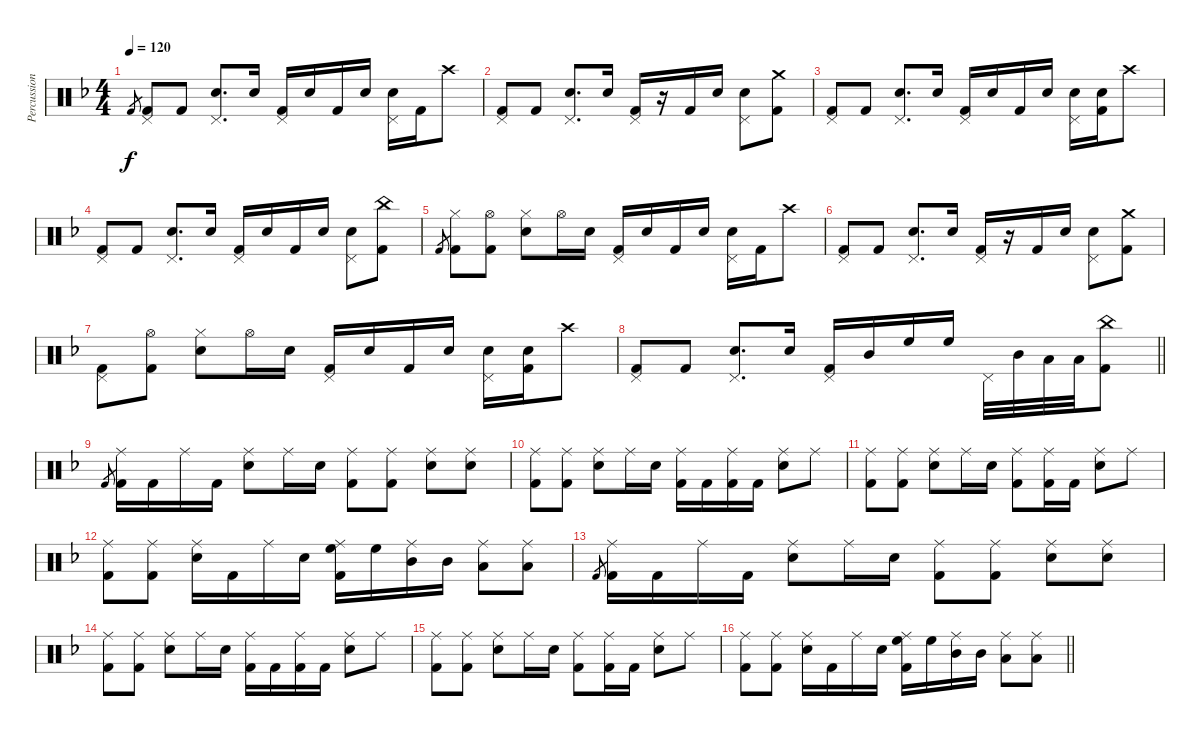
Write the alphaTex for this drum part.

\track ("Percussion" "Percussion") {instrument percussion}
\staff {score}
\articulation defaults
\ts (4 4)
\tempo 120
\clef neutral
\ks dminor "Kick (hit) 2".8{gr dy f}
("Pedal Hi-Hat (hit)" "Kick (hit) 2").8{volume 14} "Kick (hit) 2".8 ("Pedal Hi-Hat (hit)" "Snare (hit) 2").8{d} "Snare (hit) 2".16 ("Pedal Hi-Hat (hit)" "Kick (hit) 2").16 "Snare (hit) 2".16 "Kick (hit) 2".16 "Snare (hit) 2".16 ("Pedal Hi-Hat (hit)" "Snare (hit) 2").16 "Kick (hit) 2".16 "Crash high (hit)".8 |
("Pedal Hi-Hat (hit)" "Kick (hit) 2").8 "Kick (hit) 2".8 ("Pedal Hi-Hat (hit)" "Snare (hit) 2").8{d} "Snare (hit) 2".16 ("Pedal Hi-Hat (hit)" "Kick (hit) 2").16 r.16 "Kick (hit) 2".16 "Snare (hit) 2".16 ("Pedal Hi-Hat (hit)" "Snare (hit) 2").8 ("Crash medium (hit)" "Kick (hit) 2").8 |
("Pedal Hi-Hat (hit)" "Kick (hit) 2").8 "Kick (hit) 2".8 ("Pedal Hi-Hat (hit)" "Snare (hit) 2").8{d} "Snare (hit) 2".16 ("Pedal Hi-Hat (hit)" "Kick (hit) 2").16 "Snare (hit) 2".16 "Kick (hit) 2".16 "Snare (hit) 2".16 ("Pedal Hi-Hat (hit)" "Snare (hit) 2").16 ("Snare (hit) 2" "Kick (hit) 2").16 "Crash high (hit)".8 |
("Pedal Hi-Hat (hit)" "Kick (hit) 2").8 "Kick (hit) 2".8 ("Pedal Hi-Hat (hit)" "Snare (hit) 2").8{d} "Snare (hit) 2".16 ("Pedal Hi-Hat (hit)" "Kick (hit) 2").16 "Snare (hit) 2".16 "Kick (hit) 2".16 "Snare (hit) 2".16 ("Pedal Hi-Hat (hit)" "Snare (hit) 2").8 ("China (hit)" "Kick (hit) 2").8 |
"Kick (hit) 2".8{gr} ("Hi-Hat (closed)" "Kick (hit) 2").8 ("Hi-Hat (open)" "Kick (hit) 2").8 ("Hi-Hat (closed)" "Snare (hit) 2").8 "Hi-Hat (open)".16 "Snare (hit) 2".16 ("Pedal Hi-Hat (hit)" "Kick (hit) 2").16 "Snare (hit) 2".16 "Kick (hit) 2".16 "Snare (hit) 2".16 ("Pedal Hi-Hat (hit)" "Snare (hit) 2").16 "Kick (hit) 2".16 "Crash high (hit)".8 |
("Pedal Hi-Hat (hit)" "Kick (hit) 2").8 "Kick (hit) 2".8 ("Pedal Hi-Hat (hit)" "Snare (hit) 2").8{d} "Snare (hit) 2".16 ("Pedal Hi-Hat (hit)" "Kick (hit) 2").16 r.16 "Kick (hit) 2".16 "Snare (hit) 2".16 ("Pedal Hi-Hat (hit)" "Snare (hit) 2").8 ("Crash medium (hit)" "Kick (hit) 2").8 |
("Pedal Hi-Hat (hit)" "Kick (hit) 2").8 ("Hi-Hat (open)" "Kick (hit) 2").8 ("Hi-Hat (closed)" "Snare (hit) 2").8 "Hi-Hat (open)".16 "Snare (hit) 2".16 ("Pedal Hi-Hat (hit)" "Kick (hit) 2").16 "Snare (hit) 2".16 "Kick (hit) 2".16 "Snare (hit) 2".16 ("Pedal Hi-Hat (hit)" "Snare (hit) 2").16 ("Snare (hit) 2" "Kick (hit) 2").16 "Crash high (hit)".8 |
\barLineRight lightlight
("Pedal Hi-Hat (hit)" "Kick (hit) 2").8 "Kick (hit) 2".8 ("Pedal Hi-Hat (hit)" "Snare (hit) 2").8{d} "Snare (hit) 2".16 ("Pedal Hi-Hat (hit)" "Kick (hit) 2").16 "Mid Tom (hit)".16 "High Floor Tom (hit)".16 "High Floor Tom (hit)".16 "Pedal Hi-Hat (hit)".32 "Mid Tom (hit)".32 "Low Tom (hit)".32 "Low Tom (hit)".32 ("China (hit)" "Kick (hit) 2").8 |
"Kick (hit) 2".8{gr} ("Ride (middle)" "Kick (hit) 2").16 "Kick (hit) 2".16 "Ride (middle)".16 "Kick (hit) 2".16 ("Ride (middle)" "Snare (hit) 2").8 "Ride (middle)".16 "Snare (hit) 2".16 ("Ride (middle)" "Kick (hit) 2").8 ("Ride (middle)" "Kick (hit) 2").8 ("Ride (middle)" "Snare (hit) 2").8 ("Ride (middle)" "Snare (hit) 2").8 |
("Ride (middle)" "Kick (hit) 2").8 ("Ride (middle)" "Kick (hit) 2").8 ("Ride (middle)" "Snare (hit) 2").8 "Ride (middle)".16 "Snare (hit) 2".16 ("Ride (middle)" "Kick (hit) 2").16 "Kick (hit) 2".16 ("Ride (middle)" "Kick (hit) 2").16 "Kick (hit) 2".16 ("Ride (middle)" "Snare (hit) 2").8 "Ride (middle)".8 |
("Ride (middle)" "Kick (hit) 2").8 ("Ride (middle)" "Kick (hit) 2").8 ("Ride (middle)" "Snare (hit) 2").8 "Ride (middle)".16 "Snare (hit) 2".16 ("Ride (middle)" "Kick (hit) 2").8 ("Ride (middle)" "Kick (hit) 2").16 "Kick (hit) 2".16 ("Ride (middle)" "Snare (hit) 2").8 "Ride (middle)".8 |
("Ride (middle)" "Kick (hit) 2").8 ("Ride (middle)" "Kick (hit) 2").8 ("Ride (middle)" "Snare (hit) 2").16 "Kick (hit) 2".16 "Ride (middle)".16 "Snare (hit) 2".16 ("Ride (middle)" "High Floor Tom (hit)" "Kick (hit) 2").16 "High Floor Tom (hit)".16 ("Ride (middle)" "Mid Tom (hit)").16 "Mid Tom (hit)".16 ("Ride (middle)" "Low Tom (hit)").8 ("Ride (middle)" "Low Floor Tom (hit)").8 |
"Kick (hit) 2".8{gr} ("Ride (middle)" "Kick (hit) 2").16 "Kick (hit) 2".16 "Ride (middle)".16 "Kick (hit) 2".16 ("Ride (middle)" "Snare (hit) 2").8 "Ride (middle)".16 "Snare (hit) 2".16 ("Ride (middle)" "Kick (hit) 2").8 ("Ride (middle)" "Kick (hit) 2").8 ("Ride (middle)" "Snare (hit) 2").8 ("Ride (middle)" "Snare (hit) 2").8 |
("Ride (middle)" "Kick (hit) 2").8 ("Ride (middle)" "Kick (hit) 2").8 ("Ride (middle)" "Snare (hit) 2").8 "Ride (middle)".16 "Snare (hit) 2".16 ("Ride (middle)" "Kick (hit) 2").16 "Kick (hit) 2".16 ("Ride (middle)" "Kick (hit) 2").16 "Kick (hit) 2".16 ("Ride (middle)" "Snare (hit) 2").8 "Ride (middle)".8 |
("Ride (middle)" "Kick (hit) 2").8 ("Ride (middle)" "Kick (hit) 2").8 ("Ride (middle)" "Snare (hit) 2").8 "Ride (middle)".16 "Snare (hit) 2".16 ("Ride (middle)" "Kick (hit) 2").8 ("Ride (middle)" "Kick (hit) 2").16 "Kick (hit) 2".16 ("Ride (middle)" "Snare (hit) 2").8 "Ride (middle)".8 |
\barLineRight lightlight
("Ride (middle)" "Kick (hit) 2").8 ("Ride (middle)" "Kick (hit) 2").8 ("Ride (middle)" "Snare (hit) 2").16 "Kick (hit) 2".16 "Ride (middle)".16 "Snare (hit) 2".16 ("Ride (middle)" "High Floor Tom (hit)" "Kick (hit) 2").16 "High Floor Tom (hit)".16 ("Ride (middle)" "Mid Tom (hit)").16 "Mid Tom (hit)".16 ("Ride (middle)" "Low Tom (hit)").8 ("Ride (middle)" "Low Floor Tom (hit)").8
